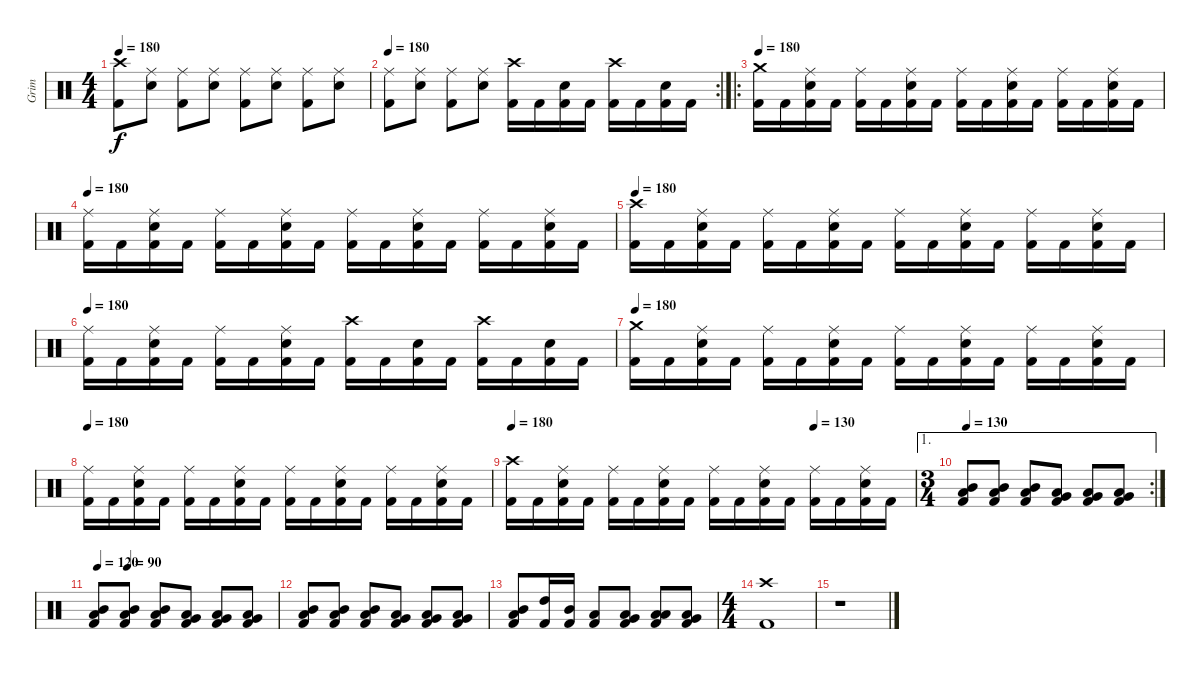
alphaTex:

\track ("Grim" "Grim") {instrument percussion}
\staff {score}
\articulation defaults
\ts (4 4)
\tempo 180
\clef neutral
\ks c
("Crash high (hit)" "Kick (hit) 2").8{dy f} ("Ride (middle)" "Electric Snare (hit)").8 ("Ride (middle)" "Kick (hit) 2").8 ("Ride (middle)" "Electric Snare (hit)").8 ("Ride (middle)" "Kick (hit) 2").8 ("Ride (middle)" "Electric Snare (hit)").8 ("Ride (middle)" "Kick (hit) 2").8 ("Ride (middle)" "Electric Snare (hit)").8 |
\rc 2
\tempo 180
("Ride (middle)" "Kick (hit) 2").8 ("Ride (middle)" "Electric Snare (hit)").8 ("Ride (middle)" "Kick (hit) 2").8 ("Ride (middle)" "Electric Snare (hit)").8 ("Crash high (hit)" "Kick (hit) 2").16 "Kick (hit) 2".16 ("Electric Snare (hit)" "Kick (hit) 2").16 "Kick (hit) 2".16 ("Crash high (hit)" "Kick (hit) 2").16 "Kick (hit) 2".16 ("Electric Snare (hit)" "Kick (hit) 2").16 "Kick (hit) 2".16 |
\ro
\tempo 180
("Crash medium (hit)" "Kick (hit) 2").16 "Kick (hit) 2".16 ("Ride (middle)" "Electric Snare (hit)" "Kick (hit) 2").16 "Kick (hit) 2".16 ("Ride (middle)" "Kick (hit) 2").16 "Kick (hit) 2".16 ("Ride (middle)" "Electric Snare (hit)" "Kick (hit) 2").16 "Kick (hit) 2".16 ("Ride (middle)" "Kick (hit) 2").16 "Kick (hit) 2".16 ("Ride (middle)" "Electric Snare (hit)" "Kick (hit) 2").16 "Kick (hit) 2".16 ("Ride (middle)" "Kick (hit) 2").16 "Kick (hit) 2".16 ("Ride (middle)" "Electric Snare (hit)" "Kick (hit) 2").16 "Kick (hit) 2".16 |
\tempo 180
("Ride (middle)" "Kick (hit) 2").16 "Kick (hit) 2".16 ("Ride (middle)" "Electric Snare (hit)" "Kick (hit) 2").16 "Kick (hit) 2".16 ("Ride (middle)" "Kick (hit) 2").16 "Kick (hit) 2".16 ("Ride (middle)" "Electric Snare (hit)" "Kick (hit) 2").16 "Kick (hit) 2".16 ("Ride (middle)" "Kick (hit) 2").16 "Kick (hit) 2".16 ("Ride (middle)" "Electric Snare (hit)" "Kick (hit) 2").16 "Kick (hit) 2".16 ("Ride (middle)" "Kick (hit) 2").16 "Kick (hit) 2".16 ("Ride (middle)" "Electric Snare (hit)" "Kick (hit) 2").16 "Kick (hit) 2".16 |
\tempo 180
("Crash high (hit)" "Kick (hit) 2").16 "Kick (hit) 2".16 ("Ride (middle)" "Electric Snare (hit)" "Kick (hit) 2").16 "Kick (hit) 2".16 ("Ride (middle)" "Kick (hit) 2").16 "Kick (hit) 2".16 ("Ride (middle)" "Electric Snare (hit)" "Kick (hit) 2").16 "Kick (hit) 2".16 ("Ride (middle)" "Kick (hit) 2").16 "Kick (hit) 2".16 ("Ride (middle)" "Electric Snare (hit)" "Kick (hit) 2").16 "Kick (hit) 2".16 ("Ride (middle)" "Kick (hit) 2").16 "Kick (hit) 2".16 ("Ride (middle)" "Electric Snare (hit)" "Kick (hit) 2").16 "Kick (hit) 2".16 |
\tempo 180
("Ride (middle)" "Kick (hit) 2").16 "Kick (hit) 2".16 ("Ride (middle)" "Electric Snare (hit)" "Kick (hit) 2").16 "Kick (hit) 2".16 ("Ride (middle)" "Kick (hit) 2").16 "Kick (hit) 2".16 ("Ride (middle)" "Electric Snare (hit)" "Kick (hit) 2").16 "Kick (hit) 2".16 ("Crash high (hit)" "Kick (hit) 2").16 "Kick (hit) 2".16 ("Electric Snare (hit)" "Kick (hit) 2").16 "Kick (hit) 2".16 ("Crash high (hit)" "Kick (hit) 2").16 "Kick (hit) 2".16 ("Electric Snare (hit)" "Kick (hit) 2").16 "Kick (hit) 2".16 |
\tempo 180
("Crash medium (hit)" "Kick (hit) 2").16 "Kick (hit) 2".16 ("Ride (middle)" "Electric Snare (hit)" "Kick (hit) 2").16 "Kick (hit) 2".16 ("Ride (middle)" "Kick (hit) 2").16 "Kick (hit) 2".16 ("Ride (middle)" "Electric Snare (hit)" "Kick (hit) 2").16 "Kick (hit) 2".16 ("Ride (middle)" "Kick (hit) 2").16 "Kick (hit) 2".16 ("Ride (middle)" "Electric Snare (hit)" "Kick (hit) 2").16 "Kick (hit) 2".16 ("Ride (middle)" "Kick (hit) 2").16 "Kick (hit) 2".16 ("Ride (middle)" "Electric Snare (hit)" "Kick (hit) 2").16 "Kick (hit) 2".16 |
\tempo 180
("Ride (middle)" "Kick (hit) 2").16 "Kick (hit) 2".16 ("Ride (middle)" "Electric Snare (hit)" "Kick (hit) 2").16 "Kick (hit) 2".16 ("Ride (middle)" "Kick (hit) 2").16 "Kick (hit) 2".16 ("Ride (middle)" "Electric Snare (hit)" "Kick (hit) 2").16 "Kick (hit) 2".16 ("Ride (middle)" "Kick (hit) 2").16 "Kick (hit) 2".16 ("Ride (middle)" "Electric Snare (hit)" "Kick (hit) 2").16 "Kick (hit) 2".16 ("Ride (middle)" "Kick (hit) 2").16 "Kick (hit) 2".16 ("Ride (middle)" "Electric Snare (hit)" "Kick (hit) 2").16 "Kick (hit) 2".16 |
\tempo 180
\tempo (130 0.75)
("Crash high (hit)" "Kick (hit) 2").16 "Kick (hit) 2".16 ("Ride (middle)" "Electric Snare (hit)" "Kick (hit) 2").16 "Kick (hit) 2".16 ("Ride (middle)" "Kick (hit) 2").16 "Kick (hit) 2".16 ("Ride (middle)" "Electric Snare (hit)" "Kick (hit) 2").16 "Kick (hit) 2".16 ("Ride (middle)" "Kick (hit) 2").16 "Kick (hit) 2".16 ("Ride (middle)" "Electric Snare (hit)" "Kick (hit) 2").16 "Kick (hit) 2".16 ("Ride (middle)" "Kick (hit) 2").16 "Kick (hit) 2".16 ("Ride (middle)" "Electric Snare (hit)" "Kick (hit) 2").16 "Kick (hit) 2".16 |
\ae 1
\rc 2
\ts (3 4)
\tempo 130
("Mid Tom (hit)" "Low Tom (hit)" "Kick (hit) 2").8 ("Mid Tom (hit)" "Low Tom (hit)" "Kick (hit) 2").8 ("Mid Tom (hit)" "Low Tom (hit)" "Kick (hit) 2").8 ("Low Tom (hit)" "Very Low Tom (hit)" "Kick (hit) 2").8 ("Low Tom (hit)" "Very Low Tom (hit)" "Kick (hit) 2").8 ("Low Tom (hit)" "Very Low Tom (hit)" "Kick (hit) 2").8 |
\tempo 120
\tempo (90 0.16666666666666666)
("Mid Tom (hit)" "Low Tom (hit)" "Kick (hit) 2").8 ("Mid Tom (hit)" "Low Tom (hit)" "Kick (hit) 2").8 ("Mid Tom (hit)" "Low Tom (hit)" "Kick (hit) 2").8 ("Low Tom (hit)" "Very Low Tom (hit)" "Kick (hit) 2").8 ("Low Tom (hit)" "Very Low Tom (hit)" "Kick (hit) 2").8 ("Low Tom (hit)" "Very Low Tom (hit)" "Kick (hit) 2").8 |
("Mid Tom (hit)" "Low Tom (hit)" "Kick (hit) 2").8 ("Mid Tom (hit)" "Low Tom (hit)" "Kick (hit) 2").8 ("Mid Tom (hit)" "Low Tom (hit)" "Kick (hit) 2").8 ("Low Tom (hit)" "Very Low Tom (hit)" "Kick (hit) 2").8 ("Low Tom (hit)" "Very Low Tom (hit)" "Kick (hit) 2").8 ("Low Tom (hit)" "Very Low Tom (hit)" "Kick (hit) 2").8 |
("Mid Tom (hit)" "Low Tom (hit)" "Kick (hit) 2").8 ("High Tom (hit)" "Kick (hit) 2").16 ("Mid Tom (hit)" "Kick (hit) 2").16 ("Low Tom (hit)" "Kick (hit) 2").8 ("Low Tom (hit)" "Very Low Tom (hit)" "Kick (hit) 2").8 ("Low Tom (hit)" "Low Floor Tom (hit)" "Kick (hit) 2").8 ("Very Low Tom (hit)" "Low Floor Tom (hit)" "Kick (hit) 2").8 |
\ts (4 4)
("Crash high (hit)" "Kick (hit) 2").1 |
r.1
